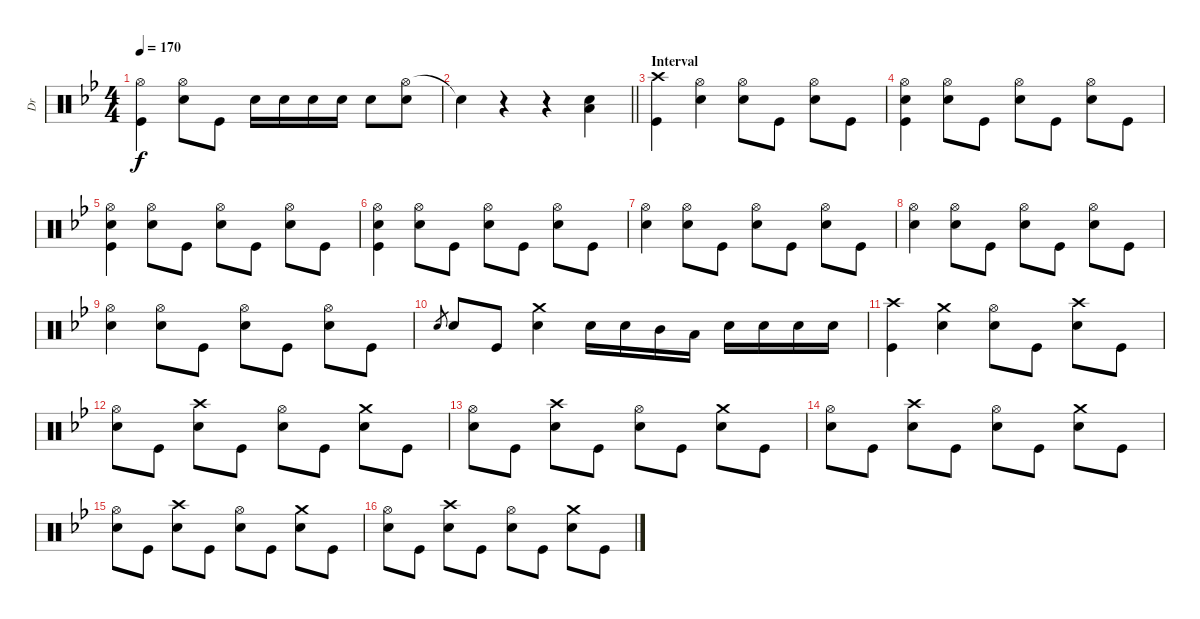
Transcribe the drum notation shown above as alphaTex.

\track ("Dr" "Dr") {instrument percussion}
\staff {score}
\articulation defaults
\ts (4 4)
\tempo 170
\clef neutral
\ks bb
("Hi-Hat (open)" "Kick (hit)").4{dy f} ("Hi-Hat (open)" "Electric Snare (hit)").8 "Kick (hit)".8 "Electric Snare (hit)".16 "Electric Snare (hit)".16 "Electric Snare (hit)".16 "Electric Snare (hit)".16 "Electric Snare (hit)".8 ("Hi-Hat (open)" "Electric Snare (hit)").8 |
\barLineRight lightlight "Snare (hit)"{t}.4
r.4 r.4 ("Electric Snare (hit)" "Low Floor Tom (hit)").4 |
\section ("" "Interval")
("Crash high (hit)" "Kick (hit)").4 ("Hi-Hat (open)" "Electric Snare (hit)").4 ("Hi-Hat (open)" "Electric Snare (hit)").8 "Kick (hit)".8 ("Hi-Hat (open)" "Electric Snare (hit)").8 "Kick (hit)".8 |
("Electric Snare (hit)" "Hi-Hat (open)" "Kick (hit)").4 ("Electric Snare (hit)" "Hi-Hat (open)").8 "Kick (hit)".8 ("Electric Snare (hit)" "Hi-Hat (open)").8 "Kick (hit)".8 ("Electric Snare (hit)" "Hi-Hat (open)").8 "Kick (hit)".8 |
("Electric Snare (hit)" "Hi-Hat (open)" "Kick (hit)").4 ("Electric Snare (hit)" "Hi-Hat (open)").8 "Kick (hit)".8 ("Electric Snare (hit)" "Hi-Hat (open)").8 "Kick (hit)".8 ("Electric Snare (hit)" "Hi-Hat (open)").8 "Kick (hit)".8 |
("Electric Snare (hit)" "Hi-Hat (open)" "Kick (hit)").4 ("Electric Snare (hit)" "Hi-Hat (open)").8 "Kick (hit)".8 ("Electric Snare (hit)" "Hi-Hat (open)").8 "Kick (hit)".8 ("Electric Snare (hit)" "Hi-Hat (open)").8 "Kick (hit)".8 |
("Electric Snare (hit)" "Hi-Hat (open)").4 ("Electric Snare (hit)" "Hi-Hat (open)").8 "Kick (hit)".8 ("Electric Snare (hit)" "Hi-Hat (open)").8 "Kick (hit)".8 ("Electric Snare (hit)" "Hi-Hat (open)").8 "Kick (hit)".8 |
("Electric Snare (hit)" "Hi-Hat (open)").4 ("Electric Snare (hit)" "Hi-Hat (open)").8 "Kick (hit)".8 ("Electric Snare (hit)" "Hi-Hat (open)").8 "Kick (hit)".8 ("Electric Snare (hit)" "Hi-Hat (open)").8 "Kick (hit)".8 |
("Electric Snare (hit)" "Hi-Hat (open)").4 ("Electric Snare (hit)" "Hi-Hat (open)").8 "Kick (hit)".8 ("Electric Snare (hit)" "Hi-Hat (open)").8 "Kick (hit)".8 ("Electric Snare (hit)" "Hi-Hat (open)").8 "Kick (hit)".8 |
"Electric Snare (hit)".8{gr} "Electric Snare (hit)".8 "Kick (hit)".8 ("Crash medium (hit)" "Electric Snare (hit)").4 "Electric Snare (hit)".16 "Electric Snare (hit)".16 "Mid Tom (hit)".16 "Low Floor Tom (hit)".16 "Electric Snare (hit)".16 "Electric Snare (hit)".16 "Electric Snare (hit)".16 "Electric Snare (hit)".16 |
("Crash high (hit)" "Kick (hit)").4 ("Crash medium (hit)" "Electric Snare (hit)").4 ("Hi-Hat (open)" "Electric Snare (hit)").8 "Kick (hit)".8 ("Crash high (hit)" "Electric Snare (hit)").8 "Kick (hit)".8 |
("Electric Snare (hit)" "Hi-Hat (open)").8 "Kick (hit)".8 ("Crash high (hit)" "Electric Snare (hit)").8 "Kick (hit)".8 ("Hi-Hat (open)" "Electric Snare (hit)").8 "Kick (hit)".8 ("Crash medium (hit)" "Electric Snare (hit)").8 "Kick (hit)".8 |
("Electric Snare (hit)" "Hi-Hat (open)").8 "Kick (hit)".8 ("Crash high (hit)" "Electric Snare (hit)").8 "Kick (hit)".8 ("Hi-Hat (open)" "Electric Snare (hit)").8 "Kick (hit)".8 ("Crash medium (hit)" "Electric Snare (hit)").8 "Kick (hit)".8 |
("Electric Snare (hit)" "Hi-Hat (open)").8 "Kick (hit)".8 ("Crash high (hit)" "Electric Snare (hit)").8 "Kick (hit)".8 ("Hi-Hat (open)" "Electric Snare (hit)").8 "Kick (hit)".8 ("Crash medium (hit)" "Electric Snare (hit)").8 "Kick (hit)".8 |
("Electric Snare (hit)" "Hi-Hat (open)").8 "Kick (hit)".8 ("Crash high (hit)" "Electric Snare (hit)").8 "Kick (hit)".8 ("Hi-Hat (open)" "Electric Snare (hit)").8 "Kick (hit)".8 ("Crash medium (hit)" "Electric Snare (hit)").8 "Kick (hit)".8 |
("Electric Snare (hit)" "Hi-Hat (open)").8 "Kick (hit)".8 ("Crash high (hit)" "Electric Snare (hit)").8 "Kick (hit)".8 ("Hi-Hat (open)" "Electric Snare (hit)").8 "Kick (hit)".8 ("Crash medium (hit)" "Electric Snare (hit)").8 "Kick (hit)".8
